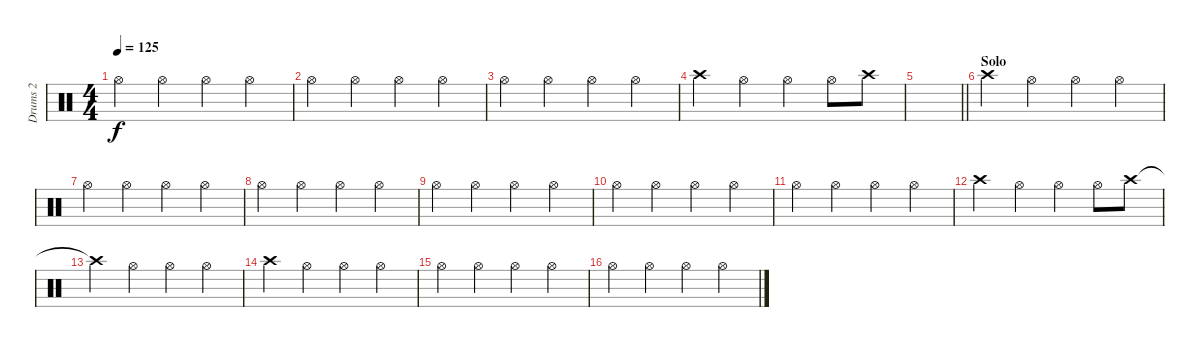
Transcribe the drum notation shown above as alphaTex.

\track ("Drums 2" "Drums 2") {instrument percussion}
\staff {score}
\articulation defaults
\ts (4 4)
\tempo 125
\clef neutral
\ks c "Hi-Hat (open)".4{dy f} "Hi-Hat (open)".4 "Hi-Hat (open)".4 "Hi-Hat (open)".4
|
"Hi-Hat (open)".4 "Hi-Hat (open)".4 "Hi-Hat (open)".4 "Hi-Hat (open)".4 |
"Hi-Hat (open)".4 "Hi-Hat (open)".4 "Hi-Hat (open)".4 "Hi-Hat (open)".4 |
"Crash high (hit)".4 "Hi-Hat (open)".4 "Hi-Hat (open)".4 "Hi-Hat (open)".8 "Crash high (hit)".8 |
\barLineRight lightlight
|
\section ("" "Solo")
"Crash high (hit)".4 "Hi-Hat (open)".4 "Hi-Hat (open)".4 "Hi-Hat (open)".4 |
"Hi-Hat (open)".4 "Hi-Hat (open)".4 "Hi-Hat (open)".4 "Hi-Hat (open)".4 |
"Hi-Hat (open)".4 "Hi-Hat (open)".4 "Hi-Hat (open)".4 "Hi-Hat (open)".4 |
"Hi-Hat (open)".4 "Hi-Hat (open)".4 "Hi-Hat (open)".4 "Hi-Hat (open)".4 |
"Hi-Hat (open)".4 "Hi-Hat (open)".4 "Hi-Hat (open)".4 "Hi-Hat (open)".4 |
"Hi-Hat (open)".4 "Hi-Hat (open)".4 "Hi-Hat (open)".4 "Hi-Hat (open)".4 |
"Crash high (hit)".4 "Hi-Hat (open)".4 "Hi-Hat (open)".4 "Hi-Hat (open)".8 "Crash high (hit)".8 |
"Crash high (hit)"{t}.4 "Hi-Hat (open)".4 "Hi-Hat (open)".4 "Hi-Hat (open)".4 |
"Crash high (hit)".4 "Hi-Hat (open)".4 "Hi-Hat (open)".4 "Hi-Hat (open)".4 |
"Hi-Hat (open)".4 "Hi-Hat (open)".4 "Hi-Hat (open)".4 "Hi-Hat (open)".4 |
"Hi-Hat (open)".4 "Hi-Hat (open)".4 "Hi-Hat (open)".4 "Hi-Hat (open)".4
